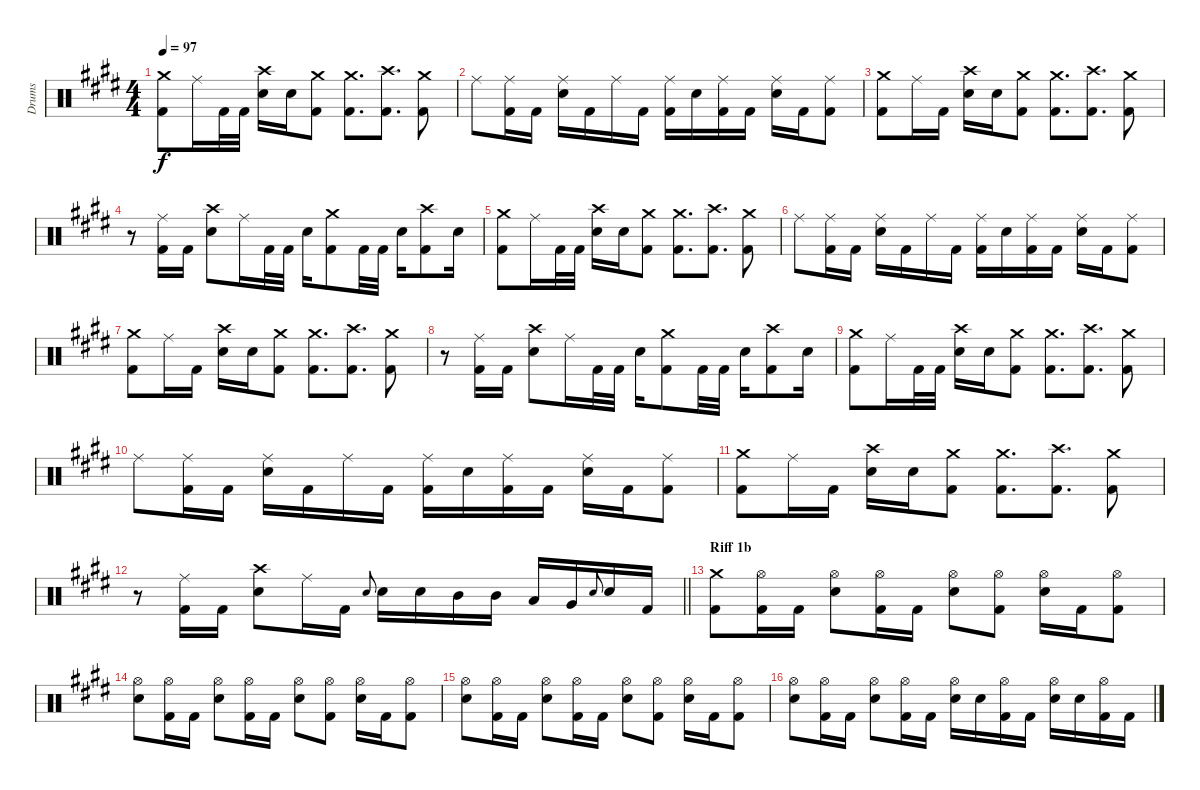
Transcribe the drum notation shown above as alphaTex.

\track ("Drums" "Drums") {instrument percussion}
\staff {score}
\articulation defaults
\ts (4 4)
\tempo 97
\clef neutral
\ks e
("Crash medium (hit)" "Kick (hit) 2").8{dy f} "Ride (middle)".16 "Kick (hit) 2".32 "Kick (hit) 2".32 ("Crash high (hit)" "Electric Snare (hit)").16 "Electric Snare (hit)".16 ("Kick (hit) 2" "Crash medium (hit)").8 ("Kick (hit) 2" "Crash medium (hit)").8{d} ("Kick (hit) 2" "Crash high (hit)").8{d} ("Kick (hit) 2" "Crash medium (hit)").8 |
"Ride (middle)".8 ("Kick (hit) 2" "Ride (middle)").16 "Kick (hit) 2".16 ("Electric Snare (hit)" "Ride (middle)").16 "Kick (hit) 2".16 "Ride (middle)".16 "Kick (hit) 2".16 ("Kick (hit) 2" "Ride (middle)").16 "Electric Snare (hit)".16 ("Kick (hit) 2" "Ride (middle)").16 "Kick (hit) 2".16 ("Electric Snare (hit)" "Ride (middle)").16 "Kick (hit) 2".16 ("Kick (hit) 2" "Ride (middle)").8 |
("Crash medium (hit)" "Kick (hit) 2").8 "Ride (middle)".16 "Kick (hit) 2".16 ("Crash high (hit)" "Electric Snare (hit)").16 "Electric Snare (hit)".16 ("Kick (hit) 2" "Crash medium (hit)").8 ("Kick (hit) 2" "Crash medium (hit)").8{d} ("Kick (hit) 2" "Crash high (hit)").8{d} ("Kick (hit) 2" "Crash medium (hit)").8 |
r.8 ("Kick (hit) 2" "Ride (middle)").16 "Kick (hit) 2".16 ("Electric Snare (hit)" "Crash high (hit)").8 "Ride (middle)".16 "Kick (hit) 2".32 "Kick (hit) 2".32 "Electric Snare (hit)".16 ("Kick (hit) 2" "Crash medium (hit)").8 "Kick (hit) 2".32 "Kick (hit) 2".32 "Electric Snare (hit)".16 ("Kick (hit) 2" "Crash high (hit)").8 "Electric Snare (hit)".16 |
("Crash medium (hit)" "Kick (hit) 2").8 "Ride (middle)".16 "Kick (hit) 2".32 "Kick (hit) 2".32 ("Crash high (hit)" "Electric Snare (hit)").16 "Electric Snare (hit)".16 ("Kick (hit) 2" "Crash medium (hit)").8 ("Kick (hit) 2" "Crash medium (hit)").8{d} ("Kick (hit) 2" "Crash high (hit)").8{d} ("Kick (hit) 2" "Crash medium (hit)").8 |
"Ride (middle)".8 ("Kick (hit) 2" "Ride (middle)").16 "Kick (hit) 2".16 ("Electric Snare (hit)" "Ride (middle)").16 "Kick (hit) 2".16 "Ride (middle)".16 "Kick (hit) 2".16 ("Kick (hit) 2" "Ride (middle)").16 "Electric Snare (hit)".16 ("Kick (hit) 2" "Ride (middle)").16 "Kick (hit) 2".16 ("Electric Snare (hit)" "Ride (middle)").16 "Kick (hit) 2".16 ("Kick (hit) 2" "Ride (middle)").8 |
("Crash medium (hit)" "Kick (hit) 2").8 "Ride (middle)".16 "Kick (hit) 2".16 ("Crash high (hit)" "Electric Snare (hit)").16 "Electric Snare (hit)".16 ("Kick (hit) 2" "Crash medium (hit)").8 ("Kick (hit) 2" "Crash medium (hit)").8{d} ("Kick (hit) 2" "Crash high (hit)").8{d} ("Kick (hit) 2" "Crash medium (hit)").8 |
r.8 ("Kick (hit) 2" "Ride (middle)").16 "Kick (hit) 2".16 ("Electric Snare (hit)" "Crash high (hit)").8 "Ride (middle)".16 "Kick (hit) 2".32 "Kick (hit) 2".32 "Electric Snare (hit)".16 ("Kick (hit) 2" "Crash medium (hit)").8 "Kick (hit) 2".32 "Kick (hit) 2".32 "Electric Snare (hit)".16 ("Kick (hit) 2" "Crash high (hit)").8 "Electric Snare (hit)".16 |
("Crash medium (hit)" "Kick (hit) 2").8 "Ride (middle)".16 "Kick (hit) 2".32 "Kick (hit) 2".32 ("Crash high (hit)" "Electric Snare (hit)").16 "Electric Snare (hit)".16 ("Kick (hit) 2" "Crash medium (hit)").8 ("Kick (hit) 2" "Crash medium (hit)").8{d} ("Kick (hit) 2" "Crash high (hit)").8{d} ("Kick (hit) 2" "Crash medium (hit)").8 |
"Ride (middle)".8 ("Kick (hit) 2" "Ride (middle)").16 "Kick (hit) 2".16 ("Electric Snare (hit)" "Ride (middle)").16 "Kick (hit) 2".16 "Ride (middle)".16 "Kick (hit) 2".16 ("Kick (hit) 2" "Ride (middle)").16 "Electric Snare (hit)".16 ("Kick (hit) 2" "Ride (middle)").16 "Kick (hit) 2".16 ("Electric Snare (hit)" "Ride (middle)").16 "Kick (hit) 2".16 ("Kick (hit) 2" "Ride (middle)").8 |
("Crash medium (hit)" "Kick (hit) 2").8 "Ride (middle)".16 "Kick (hit) 2".16 ("Crash high (hit)" "Electric Snare (hit)").16 "Electric Snare (hit)".16 ("Kick (hit) 2" "Crash medium (hit)").8 ("Kick (hit) 2" "Crash medium (hit)").8{d} ("Kick (hit) 2" "Crash high (hit)").8{d} ("Kick (hit) 2" "Crash medium (hit)").8 |
\barLineRight lightlight
r.8 ("Kick (hit) 2" "Ride (middle)").16 "Kick (hit) 2".16 ("Electric Snare (hit)" "Crash high (hit)").8 "Ride (middle)".16 "Kick (hit) 2".16 "Electric Snare (hit)".8{gr onbeat} "Electric Snare (hit)".16 "Electric Snare (hit)".16 "Mid Tom (hit)".16 "Mid Tom (hit)".16 "Low Tom (hit)".16 "Very Low Tom (hit)".16 "Electric Snare (hit)".8{gr onbeat} "Electric Snare (hit)".16 "Kick (hit) 2".16 |
\section ("" "Riff 1b")
("Crash medium (hit)" "Kick (hit) 2").8 ("Hi-Hat (open)" "Kick (hit) 2").16 "Kick (hit) 2".16 ("Hi-Hat (open)" "Electric Snare (hit)").8 ("Hi-Hat (open)" "Kick (hit) 2").16 "Kick (hit) 2".16 ("Hi-Hat (open)" "Electric Snare (hit)").8 ("Kick (hit) 2" "Hi-Hat (open)").8 ("Electric Snare (hit)" "Hi-Hat (open)").16 "Kick (hit) 2".16 ("Kick (hit) 2" "Hi-Hat (open)").8 |
("Hi-Hat (open)" "Electric Snare (hit)").8 ("Hi-Hat (open)" "Kick (hit) 2").16 "Kick (hit) 2".16 ("Hi-Hat (open)" "Electric Snare (hit)").8 ("Hi-Hat (open)" "Kick (hit) 2").16 "Kick (hit) 2".16 ("Hi-Hat (open)" "Electric Snare (hit)").8 ("Kick (hit) 2" "Hi-Hat (open)").8 ("Electric Snare (hit)" "Hi-Hat (open)").16 "Kick (hit) 2".16 ("Kick (hit) 2" "Hi-Hat (open)").8 |
("Hi-Hat (open)" "Electric Snare (hit)").8 ("Hi-Hat (open)" "Kick (hit) 2").16 "Kick (hit) 2".16 ("Hi-Hat (open)" "Electric Snare (hit)").8 ("Hi-Hat (open)" "Kick (hit) 2").16 "Kick (hit) 2".16 ("Hi-Hat (open)" "Electric Snare (hit)").8 ("Kick (hit) 2" "Hi-Hat (open)").8 ("Electric Snare (hit)" "Hi-Hat (open)").16 "Kick (hit) 2".16 ("Kick (hit) 2" "Hi-Hat (open)").8 |
("Hi-Hat (open)" "Electric Snare (hit)").8 ("Hi-Hat (open)" "Kick (hit) 2").16 "Kick (hit) 2".16 ("Hi-Hat (open)" "Electric Snare (hit)").8 ("Hi-Hat (open)" "Kick (hit) 2").16 "Kick (hit) 2".16 ("Hi-Hat (open)" "Electric Snare (hit)").16 "Electric Snare (hit)".16 ("Kick (hit) 2" "Hi-Hat (open)").16 "Kick (hit) 2".16 ("Hi-Hat (open)" "Electric Snare (hit)").16 "Electric Snare (hit)".16 ("Kick (hit) 2" "Hi-Hat (open)").16 "Kick (hit) 2".16
